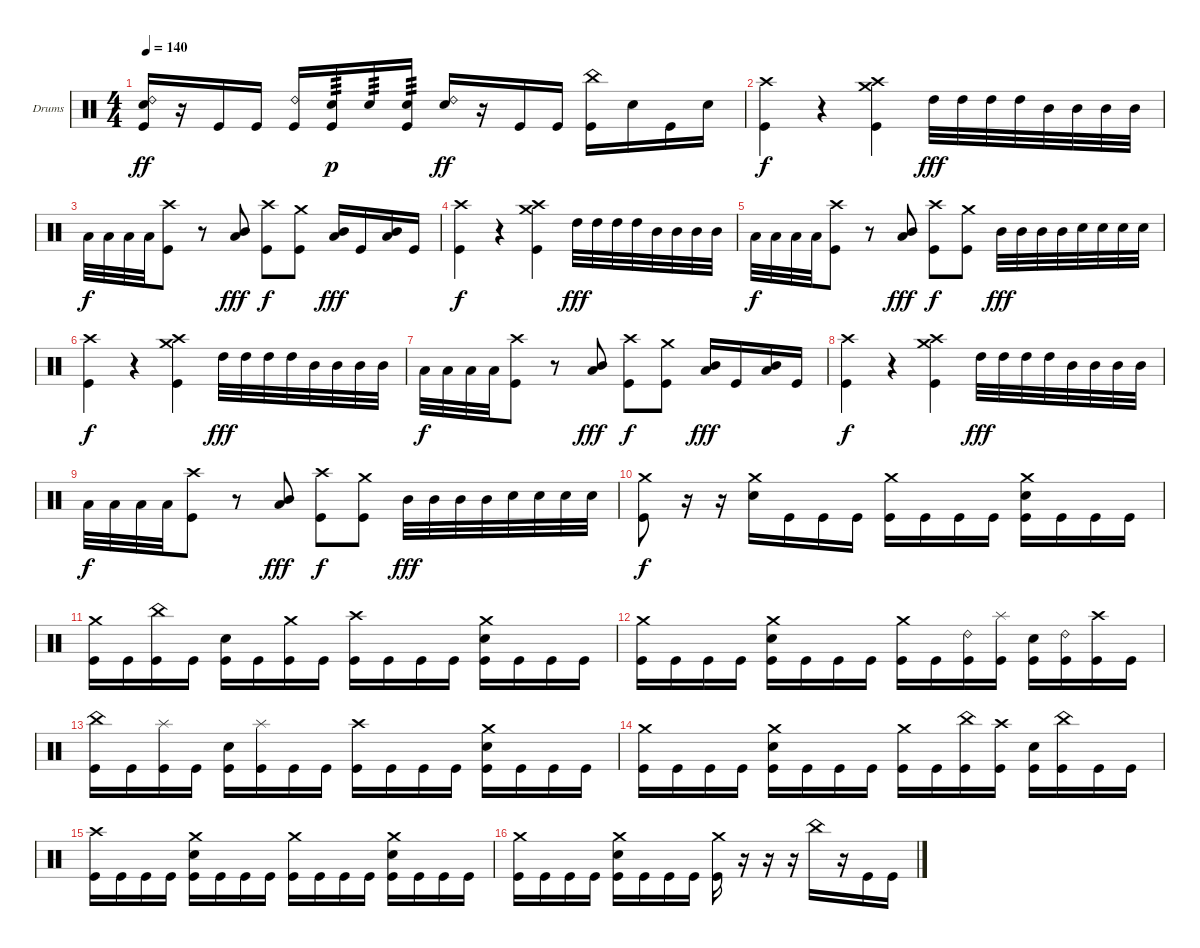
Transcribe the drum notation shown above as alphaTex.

\defaultSystemsLayout 4
\bracketExtendMode groupsimilarinstruments
\firstSystemTrackNameOrientation horizontal
\otherSystemsTrackNameOrientation horizontal
\track ("Drumkit" "Drums") {instrument percussion}
\staff {score}
\articulation defaults
\ts (4 4)
\tempo 140
\clef neutral
\ks c
("Ride (bell) 2" "Snare (hit) 2" "Kick (hit)").16{dy ff} r.16 "Kick (hit)".16 "Kick (hit)".16 ("Ride (bell) 2" "Kick (hit)").16 ("Snare (hit) 2" "Kick (hit)").16{tp 3 dy p} "Snare (hit) 2".16{tp 3} ("Snare (hit) 2" "Kick (hit)").16{tp 3} ("Ride (bell) 2" "Snare (hit) 2").16{dy ff} r.16 "Kick (hit)".16 "Kick (hit)".16 ("China (hit)" "Kick (hit)").16 "Snare (hit) 2".16 "Kick (hit)".16 "Snare (hit) 2".16 |
("Crash high (hit)" "Kick (hit)").4{dy f} r.4 ("Crash high (hit)" "Crash medium (hit)" "Kick (hit)").4 "High Tom (hit)".32{dy fff} "High Tom (hit)".32 "High Tom (hit)".32 "High Tom (hit)".32 "Mid Tom (hit)".32 "Mid Tom (hit)".32 "Mid Tom (hit)".32 "Mid Tom (hit)".32 |
"Low Tom (hit)".32{dy f} "Low Tom (hit)".32 "Low Tom (hit)".32 "Low Tom (hit)".32 ("Crash high (hit)" "Kick (hit)").8 r.8 ("Mid Tom (hit)" "Low Tom (hit)").8{dy fff} ("Crash high (hit)" "Kick (hit)").8{dy f} ("Crash medium (hit)" "Kick (hit)").8 ("Mid Tom (hit)" "Low Tom (hit)").16{dy fff} "Kick (hit)".16 ("Mid Tom (hit)" "Low Tom (hit)").16 "Kick (hit)".16 |
("Crash high (hit)" "Kick (hit)").4{dy f} r.4 ("Crash high (hit)" "Crash medium (hit)" "Kick (hit)").4 "High Tom (hit)".32{dy fff} "High Tom (hit)".32 "High Tom (hit)".32 "High Tom (hit)".32 "Mid Tom (hit)".32 "Mid Tom (hit)".32 "Mid Tom (hit)".32 "Mid Tom (hit)".32 |
"Low Tom (hit)".32{dy f} "Low Tom (hit)".32 "Low Tom (hit)".32 "Low Tom (hit)".32 ("Crash high (hit)" "Kick (hit)").8 r.8 ("Mid Tom (hit)" "Low Tom (hit)").8{dy fff} ("Crash high (hit)" "Kick (hit)").8{dy f} ("Crash medium (hit)" "Kick (hit)").8 "Mid Tom (hit)".32{dy fff} "Mid Tom (hit)".32 "Mid Tom (hit)".32 "Mid Tom (hit)".32 "Snare (hit) 2".32 "Snare (hit) 2".32 "Snare (hit) 2".32 "Snare (hit) 2".32 |
("Crash high (hit)" "Kick (hit)").4{dy f} r.4 ("Crash high (hit)" "Crash medium (hit)" "Kick (hit)").4 "High Tom (hit)".32{dy fff} "High Tom (hit)".32 "High Tom (hit)".32 "High Tom (hit)".32 "Mid Tom (hit)".32 "Mid Tom (hit)".32 "Mid Tom (hit)".32 "Mid Tom (hit)".32 |
"Low Tom (hit)".32{dy f} "Low Tom (hit)".32 "Low Tom (hit)".32 "Low Tom (hit)".32 ("Crash high (hit)" "Kick (hit)").8 r.8 ("Mid Tom (hit)" "Low Tom (hit)").8{dy fff} ("Crash high (hit)" "Kick (hit)").8{dy f} ("Crash medium (hit)" "Kick (hit)").8 ("Mid Tom (hit)" "Low Tom (hit)").16{dy fff} "Kick (hit)".16 ("Mid Tom (hit)" "Low Tom (hit)").16 "Kick (hit)".16 |
("Crash high (hit)" "Kick (hit)").4{dy f} r.4 ("Crash high (hit)" "Crash medium (hit)" "Kick (hit)").4 "High Tom (hit)".32{dy fff} "High Tom (hit)".32 "High Tom (hit)".32 "High Tom (hit)".32 "Mid Tom (hit)".32 "Mid Tom (hit)".32 "Mid Tom (hit)".32 "Mid Tom (hit)".32 |
"Low Tom (hit)".32{dy f} "Low Tom (hit)".32 "Low Tom (hit)".32 "Low Tom (hit)".32 ("Crash high (hit)" "Kick (hit)").8 r.8 ("Mid Tom (hit)" "Low Tom (hit)").8{dy fff} ("Crash high (hit)" "Kick (hit)").8{dy f} ("Crash medium (hit)" "Kick (hit)").8 "Mid Tom (hit)".32{dy fff} "Mid Tom (hit)".32 "Mid Tom (hit)".32 "Mid Tom (hit)".32 "Snare (hit) 2".32 "Snare (hit) 2".32 "Snare (hit) 2".32 "Snare (hit) 2".32 |
("Crash medium (hit)" "Kick (hit)").8{dy f} r.16 r.16 ("Crash medium (hit)" "Snare (hit) 2").16 "Kick (hit)".16 "Kick (hit)".16 "Kick (hit)".16 ("Crash medium (hit)" "Kick (hit)").16 "Kick (hit)".16 "Kick (hit)".16 "Kick (hit)".16 ("Crash medium (hit)" "Snare (hit) 2" "Kick (hit)").16 "Kick (hit)".16 "Kick (hit)".16 "Kick (hit)".16 |
("Crash medium (hit)" "Kick (hit)").16 "Kick (hit)".16 ("China (hit)" "Kick (hit)").16 "Kick (hit)".16 ("Snare (hit) 2" "Kick (hit)").16 "Kick (hit)".16 ("Crash medium (hit)" "Kick (hit)").16 "Kick (hit)".16 ("Crash high (hit)" "Kick (hit)").16 "Kick (hit)".16 "Kick (hit)".16 "Kick (hit)".16 ("Crash medium (hit)" "Snare (hit) 2" "Kick (hit)").16 "Kick (hit)".16 "Kick (hit)".16 "Kick (hit)".16 |
("Crash medium (hit)" "Kick (hit)").16 "Kick (hit)".16 "Kick (hit)".16 "Kick (hit)".16 ("Crash medium (hit)" "Snare (hit) 2" "Kick (hit)").16 "Kick (hit)".16 "Kick (hit)".16 "Kick (hit)".16 ("Crash medium (hit)" "Kick (hit)").16 "Kick (hit)".16 ("Ride (bell) 2" "Kick (hit)").16 ("Splash (hit)" "Kick (hit)").16 ("Snare (hit) 2" "Kick (hit)").16 ("Ride (bell) 2" "Kick (hit)").16 ("Crash high (hit)" "Kick (hit)").16 "Kick (hit)".16 |
("China (hit)" "Kick (hit)").16 "Kick (hit)".16 ("Splash (hit)" "Kick (hit)").16 "Kick (hit)".16 ("Snare (hit) 2" "Kick (hit)").16 ("Splash (hit)" "Kick (hit)").16 "Kick (hit)".16 "Kick (hit)".16 ("Crash high (hit)" "Kick (hit)").16 "Kick (hit)".16 "Kick (hit)".16 "Kick (hit)".16 ("Crash medium (hit)" "Snare (hit) 2" "Kick (hit)").16 "Kick (hit)".16 "Kick (hit)".16 "Kick (hit)".16 |
("Crash medium (hit)" "Kick (hit)").16 "Kick (hit)".16 "Kick (hit)".16 "Kick (hit)".16 ("Crash medium (hit)" "Snare (hit) 2" "Kick (hit)").16 "Kick (hit)".16 "Kick (hit)".16 "Kick (hit)".16 ("Crash medium (hit)" "Kick (hit)").16 "Kick (hit)".16 ("China (hit)" "Kick (hit)").16 ("Crash high (hit)" "Kick (hit)").16 ("Snare (hit) 2" "Kick (hit)").16 ("China (hit)" "Kick (hit)").16 "Kick (hit)".16 "Kick (hit)".16 |
("Crash high (hit)" "Kick (hit)").16 "Kick (hit)".16 "Kick (hit)".16 "Kick (hit)".16 ("Crash medium (hit)" "Snare (hit) 2" "Kick (hit)").16 "Kick (hit)".16 "Kick (hit)".16 "Kick (hit)".16 ("Crash medium (hit)" "Kick (hit)").16 "Kick (hit)".16 "Kick (hit)".16 "Kick (hit)".16 ("Crash medium (hit)" "Snare (hit) 2" "Kick (hit)").16 "Kick (hit)".16 "Kick (hit)".16 "Kick (hit)".16 |
("Crash medium (hit)" "Kick (hit)").16 "Kick (hit)".16 "Kick (hit)".16 "Kick (hit)".16 ("Crash medium (hit)" "Snare (hit) 2" "Kick (hit)").16 "Kick (hit)".16 "Kick (hit)".16 "Kick (hit)".16 ("Crash medium (hit)" "Kick (hit)").16 r.16 r.16 r.16 "China (hit)".16 r.16 "Kick (hit)".16 "Kick (hit)".16
